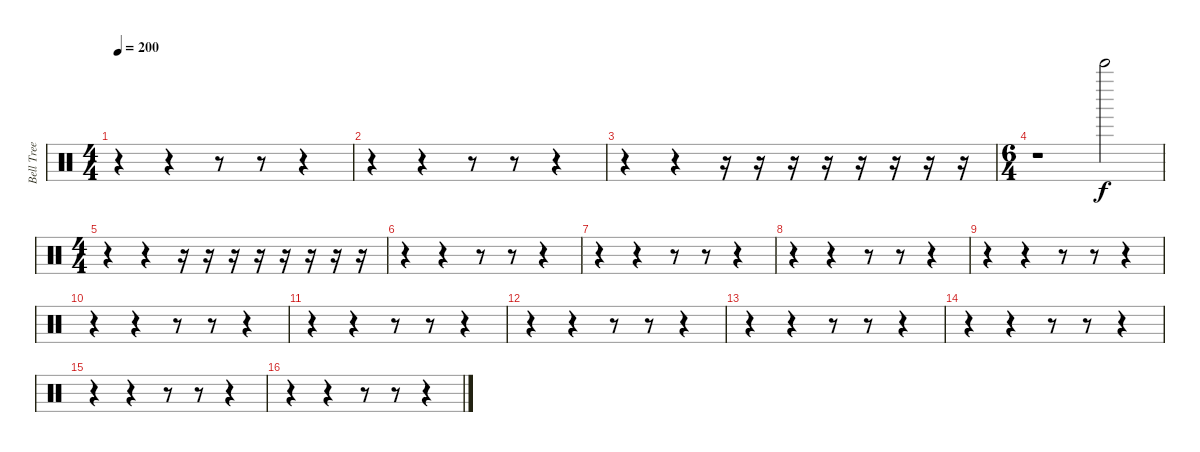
\track ("Bell Tree" "Bell Tree") {instrument percussion}
\staff {score}
\articulation defaults
\ts (4 4)
\tempo 200
\clef neutral
\ks c
r.4{dy f} r.4 r.8 r.8 r.4 |
r.4 r.4 r.8 r.8 r.4 |
r.4 r.4 r.16 r.16 r.16 r.16 r.16 r.16 r.16 r.16 |
\ts (6 4)
r.1 "Bell Tree (hit)".2 |
\ts (4 4)
r.4 r.4 r.16 r.16 r.16 r.16 r.16 r.16 r.16 r.16 |
r.4 r.4 r.8 r.8 r.4 |
r.4 r.4 r.8 r.8 r.4 |
r.4 r.4 r.8 r.8 r.4 |
r.4 r.4 r.8 r.8 r.4 |
r.4 r.4 r.8 r.8 r.4 |
r.4 r.4 r.8 r.8 r.4 |
r.4 r.4 r.8 r.8 r.4 |
r.4 r.4 r.8 r.8 r.4 |
r.4 r.4 r.8 r.8 r.4 |
r.4 r.4 r.8 r.8 r.4 |
r.4 r.4 r.8 r.8 r.4
